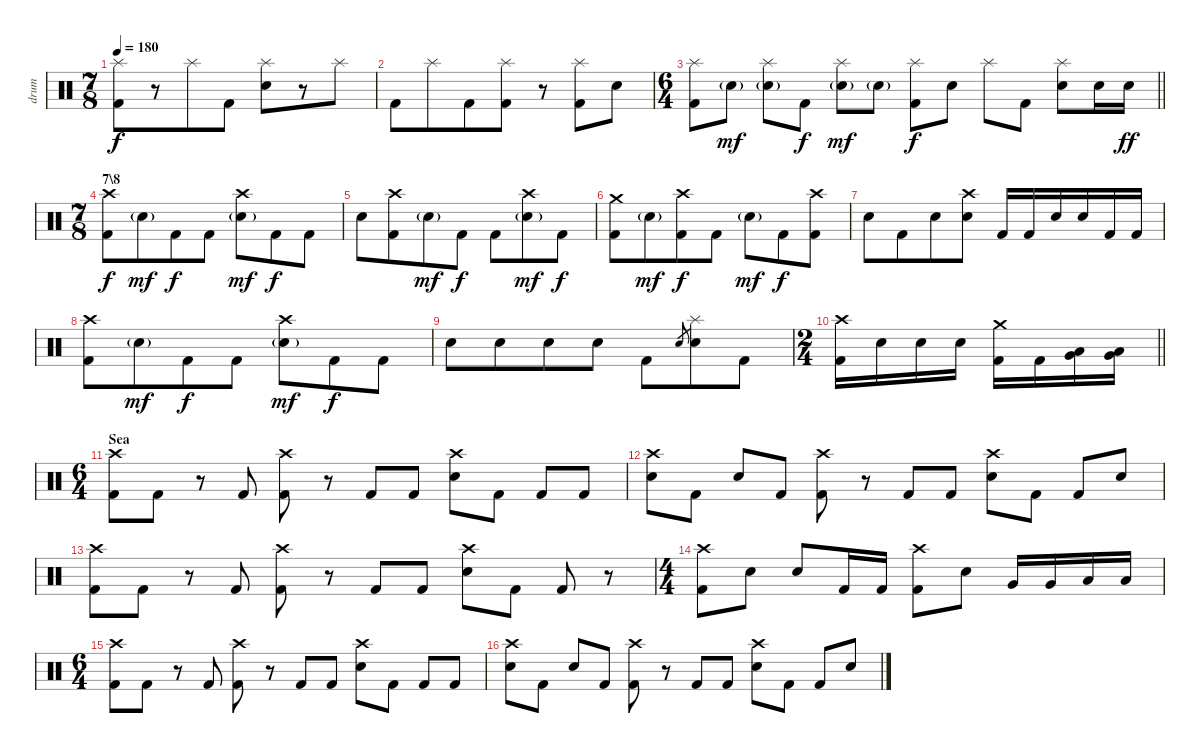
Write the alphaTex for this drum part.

\track ("drum" "drum") {instrument percussion}
\staff {score}
\articulation defaults
\ts (7 8)
\tempo 180
\clef neutral
\ks c
("Splash (hit)" "Kick (hit) 2").8{dy f} r.8 "Splash (hit)".8 "Kick (hit) 2".8 ("Splash (hit)" "Electric Snare (hit)").8 r.8 "Splash (hit)".8 |
"Kick (hit) 2".8 "Splash (hit)".8 "Kick (hit) 2".8 ("Splash (hit)" "Kick (hit) 2").8 r.8 ("Splash (hit)" "Kick (hit) 2").8 "Electric Snare (hit)".8 |
\ts (6 4)
\barLineRight lightlight
("Splash (hit)" "Kick (hit) 2").8 "Electric Snare (hit)"{g}.8{dy mf} ("Splash (hit)" "Electric Snare (hit)"{g}).8 "Kick (hit) 2".8{dy f} ("Splash (hit)" "Electric Snare (hit)"{g}).8{dy mf} "Electric Snare (hit)"{g}.8 ("Splash (hit)" "Kick (hit) 2").8{dy f} "Electric Snare (hit)".8 "Splash (hit)".8 "Kick (hit) 2".8 ("Splash (hit)" "Electric Snare (hit)").8 "Electric Snare (hit)".16 "Electric Snare (hit)".16{dy ff} |
\ts (7 8)
\section ("" "7\\8")
("Crash high (hit)" "Kick (hit) 2").8{dy f} "Electric Snare (hit)"{g}.8{dy mf} "Kick (hit) 2".8{dy f} "Kick (hit) 2".8 ("Crash high (hit)" "Electric Snare (hit)"{g}).8{dy mf} "Kick (hit) 2".8{dy f} "Kick (hit) 2".8 |
"Electric Snare (hit)".8 ("Crash high (hit)" "Kick (hit) 2").8 "Electric Snare (hit)"{g}.8{dy mf} "Kick (hit) 2".8{dy f} "Kick (hit) 2".8 ("Crash high (hit)" "Electric Snare (hit)"{g}).8{dy mf} "Kick (hit) 2".8{dy f} |
("Crash medium (hit)" "Kick (hit) 2").8 "Electric Snare (hit)"{g}.8{dy mf} ("Crash high (hit)" "Kick (hit) 2").8{dy f} "Kick (hit) 2".8 "Electric Snare (hit)"{g}.8{dy mf} "Kick (hit) 2".8{dy f} ("Crash high (hit)" "Kick (hit) 2").8 |
"Electric Snare (hit)".8 "Kick (hit) 2".8 "Electric Snare (hit)".8 ("Crash high (hit)" "Electric Snare (hit)").8 "Kick (hit) 2".16 "Kick (hit) 2".16 "Electric Snare (hit)".16 "Electric Snare (hit)".16 "Kick (hit) 2".16 "Kick (hit) 2".16 |
("Crash high (hit)" "Kick (hit) 2").8 "Electric Snare (hit)"{g}.8{dy mf} "Kick (hit) 2".8{dy f} "Kick (hit) 2".8 ("Crash high (hit)" "Electric Snare (hit)"{g}).8{dy mf} "Kick (hit) 2".8{dy f} "Kick (hit) 2".8 |
"Electric Snare (hit)".8 "Electric Snare (hit)".8 "Electric Snare (hit)".8 "Electric Snare (hit)".8 "Kick (hit) 2".8 "Electric Snare (hit)".8{gr} ("Splash (hit)" "Electric Snare (hit)").8 "Kick (hit) 2".8 |
\ts (2 4)
\barLineRight lightlight
("Crash high (hit)" "Kick (hit) 2").16 "Electric Snare (hit)".16 "Electric Snare (hit)".16 "Electric Snare (hit)".16 ("Crash medium (hit)" "Kick (hit) 2").16 "Kick (hit) 2".16 ("Low Tom (hit)" "Very Low Tom (hit)").16 ("Low Tom (hit)" "Very Low Tom (hit)").16 |
\ts (6 4)
\section ("" "Sea")
("Crash high (hit)" "Kick (hit) 2").8 "Kick (hit) 2".8 r.8 "Kick (hit) 2".8 ("Crash high (hit)" "Kick (hit) 2").8 r.8 "Kick (hit) 2".8 "Kick (hit) 2".8 ("Crash high (hit)" "Electric Snare (hit)").8 "Kick (hit) 2".8 "Kick (hit) 2".8 "Kick (hit) 2".8 |
("Crash high (hit)" "Electric Snare (hit)").8 "Kick (hit) 2".8 "Electric Snare (hit)".8 "Kick (hit) 2".8 ("Crash high (hit)" "Kick (hit) 2").8 r.8 "Kick (hit) 2".8 "Kick (hit) 2".8 ("Crash high (hit)" "Electric Snare (hit)").8 "Kick (hit) 2".8 "Kick (hit) 2".8 "Electric Snare (hit)".8 |
("Crash high (hit)" "Kick (hit) 2").8 "Kick (hit) 2".8 r.8 "Kick (hit) 2".8 ("Crash high (hit)" "Kick (hit) 2").8 r.8 "Kick (hit) 2".8 "Kick (hit) 2".8 ("Crash high (hit)" "Electric Snare (hit)").8 "Kick (hit) 2".8 "Kick (hit) 2".8 r.8 |
\ts (4 4)
("Crash high (hit)" "Kick (hit) 2").8 "Electric Snare (hit)".8 "Electric Snare (hit)".8 "Kick (hit) 2".16 "Kick (hit) 2".16 ("Crash high (hit)" "Kick (hit) 2").8 "Electric Snare (hit)".8 "Very Low Tom (hit)".16 "Very Low Tom (hit)".16 "Low Tom (hit)".16 "Low Tom (hit)".16 |
\ts (6 4)
("Crash high (hit)" "Kick (hit) 2").8 "Kick (hit) 2".8 r.8 "Kick (hit) 2".8 ("Crash high (hit)" "Kick (hit) 2").8 r.8 "Kick (hit) 2".8 "Kick (hit) 2".8 ("Crash high (hit)" "Electric Snare (hit)").8 "Kick (hit) 2".8 "Kick (hit) 2".8 "Kick (hit) 2".8 |
("Crash high (hit)" "Electric Snare (hit)").8 "Kick (hit) 2".8 "Electric Snare (hit)".8 "Kick (hit) 2".8 ("Crash high (hit)" "Kick (hit) 2").8 r.8 "Kick (hit) 2".8 "Kick (hit) 2".8 ("Crash high (hit)" "Electric Snare (hit)").8 "Kick (hit) 2".8 "Kick (hit) 2".8 "Electric Snare (hit)".8
